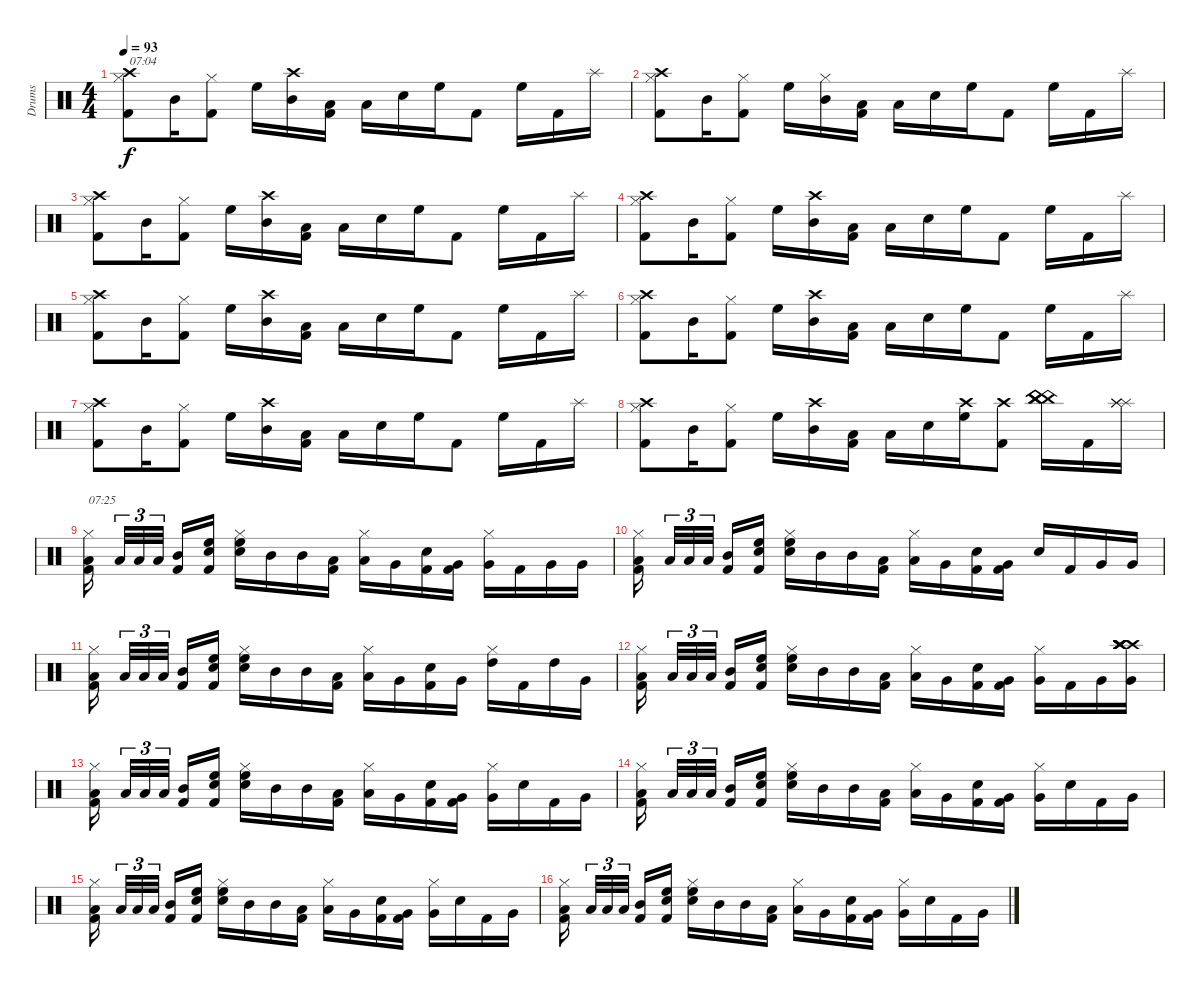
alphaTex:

\track ("Drums" "Drums") {instrument percussion}
\staff {score}
\articulation defaults
\ts (4 4)
\tempo 93
\clef neutral
\ks c
("Crash high (hit)" "Hi-Hat (closed)" "Kick (hit) 2").8{txt "07:04" dy f} "Mid Tom (hit)".16 ("Hi-Hat (closed)" "Kick (hit) 2").8 "High Floor Tom (hit)".16 ("Crash high (hit)" "Mid Tom (hit)").16 ("Low Tom (hit)" "Kick (hit) 2").16 "Low Tom (hit)".16 "Snare (hit) 2".16 "High Floor Tom (hit)".16 "Kick (hit) 2".8 "High Floor Tom (hit)".16 "Kick (hit) 2".16 "Splash (hit)".16 |
("Crash high (hit)" "Hi-Hat (closed)" "Kick (hit) 2").8 "Mid Tom (hit)".16 ("Hi-Hat (closed)" "Kick (hit) 2").8 "High Floor Tom (hit)".16 ("Hi-Hat (closed)" "Mid Tom (hit)").16 ("Low Tom (hit)" "Kick (hit) 2").16 "Low Tom (hit)".16 "Snare (hit) 2".16 "High Floor Tom (hit)".16 "Kick (hit) 2".8 "High Floor Tom (hit)".16 "Kick (hit) 2".16 "Splash (hit)".16 |
("Crash high (hit)" "Hi-Hat (closed)" "Kick (hit) 2").8 "Mid Tom (hit)".16 ("Hi-Hat (closed)" "Kick (hit) 2").8 "High Floor Tom (hit)".16 ("Crash high (hit)" "Mid Tom (hit)").16 ("Low Tom (hit)" "Kick (hit) 2").16 "Low Tom (hit)".16 "Snare (hit) 2".16 "High Floor Tom (hit)".16 "Kick (hit) 2".8 "High Floor Tom (hit)".16 "Kick (hit) 2".16 "Splash (hit)".16 |
("Crash high (hit)" "Hi-Hat (closed)" "Kick (hit) 2").8 "Mid Tom (hit)".16 ("Hi-Hat (closed)" "Kick (hit) 2").8 "High Floor Tom (hit)".16 ("Crash high (hit)" "Mid Tom (hit)").16 ("Low Tom (hit)" "Kick (hit) 2").16 "Low Tom (hit)".16 "Snare (hit) 2".16 "High Floor Tom (hit)".16 "Kick (hit) 2".8 "High Floor Tom (hit)".16 "Kick (hit) 2".16 "Splash (hit)".16 |
("Crash high (hit)" "Hi-Hat (closed)" "Kick (hit) 2").8 "Mid Tom (hit)".16 ("Hi-Hat (closed)" "Kick (hit) 2").8 "High Floor Tom (hit)".16 ("Crash high (hit)" "Mid Tom (hit)").16 ("Low Tom (hit)" "Kick (hit) 2").16 "Low Tom (hit)".16 "Snare (hit) 2".16 "High Floor Tom (hit)".16 "Kick (hit) 2".8 "High Floor Tom (hit)".16 "Kick (hit) 2".16 "Splash (hit)".16 |
("Crash high (hit)" "Hi-Hat (closed)" "Kick (hit) 2").8 "Mid Tom (hit)".16 ("Hi-Hat (closed)" "Kick (hit) 2").8 "High Floor Tom (hit)".16 ("Crash high (hit)" "Mid Tom (hit)").16 ("Low Tom (hit)" "Kick (hit) 2").16 "Low Tom (hit)".16 "Snare (hit) 2".16 "High Floor Tom (hit)".16 "Kick (hit) 2".8 "High Floor Tom (hit)".16 "Kick (hit) 2".16 "Splash (hit)".16 |
("Crash high (hit)" "Hi-Hat (closed)" "Kick (hit) 2").8 "Mid Tom (hit)".16 ("Hi-Hat (closed)" "Kick (hit) 2").8 "High Floor Tom (hit)".16 ("Crash high (hit)" "Mid Tom (hit)").16 ("Low Tom (hit)" "Kick (hit) 2").16 "Low Tom (hit)".16 "Snare (hit) 2".16 "High Floor Tom (hit)".16 "Kick (hit) 2".8 "High Floor Tom (hit)".16 "Kick (hit) 2".16 "Splash (hit)".16 |
("Crash high (hit)" "Hi-Hat (closed)" "Kick (hit) 2").8 "Mid Tom (hit)".16 ("Hi-Hat (closed)" "Kick (hit) 2").8 "High Floor Tom (hit)".16 ("Crash high (hit)" "Mid Tom (hit)").16 ("Low Tom (hit)" "Kick (hit) 2").16 "Low Tom (hit)".16 "Snare (hit) 2".16 ("Crash high (hit)" "High Floor Tom (hit)").16 ("Crash high (hit)" "Kick (hit) 2").8 ("China (hit)" "China (hit)" "China (hit)" "China (hit)").16 "Kick (hit) 2".16 ("Splash (hit)" "Splash (hit)" "Splash (hit)" "Splash (hit)").16 |
("Hi-Hat (closed)" "Low Floor Tom (hit)" "Kick (hit) 2").16{txt "07:25"} "Low Floor Tom (hit)".32{tu (3 2)} "Low Floor Tom (hit)".32{tu (3 2)} "Low Floor Tom (hit)".32{tu (3 2)} ("Mid Tom (hit)" "Kick (hit) 2").16 ("High Floor Tom (hit)" "Snare (hit) 2" "Kick (hit) 2").16 ("High Floor Tom (hit)" "Hi-Hat (closed)" "Snare (hit) 2").16 "Mid Tom (hit)".16 "Mid Tom (hit)".16 ("Low Tom (hit)" "Kick (hit) 2").16 ("Hi-Hat (closed)" "Low Floor Tom (hit)").16 "Very Low Tom (hit)".16 ("Snare (hit) 2" "Kick (hit) 2").16 ("Very Low Tom (hit)" "Kick (hit) 2").16 ("Hi-Hat (closed)" "Very Low Tom (hit)").16 "Kick (hit) 2".16 "Very Low Tom (hit)".16 "Very Low Tom (hit)".16 |
("Hi-Hat (closed)" "Low Floor Tom (hit)" "Kick (hit) 2").16 "Low Floor Tom (hit)".32{tu (3 2)} "Low Floor Tom (hit)".32{tu (3 2)} "Low Floor Tom (hit)".32{tu (3 2)} ("Mid Tom (hit)" "Kick (hit) 2").16 ("High Floor Tom (hit)" "Snare (hit) 2" "Kick (hit) 2").16 ("High Floor Tom (hit)" "Hi-Hat (closed)" "Snare (hit) 2").16 "Mid Tom (hit)".16 "Mid Tom (hit)".16 ("Low Tom (hit)" "Kick (hit) 2").16 ("Hi-Hat (closed)" "Low Floor Tom (hit)").16 "Very Low Tom (hit)".16 ("Snare (hit) 2" "Kick (hit) 2").16 ("Very Low Tom (hit)" "Kick (hit) 2").16 "Snare (hit) 2".16 "Kick (hit) 2".16 "Very Low Tom (hit)".16 "Very Low Tom (hit)".16 |
("Hi-Hat (closed)" "Low Floor Tom (hit)" "Kick (hit) 2").16 "Low Floor Tom (hit)".32{tu (3 2)} "Low Floor Tom (hit)".32{tu (3 2)} "Low Floor Tom (hit)".32{tu (3 2)} ("Mid Tom (hit)" "Kick (hit) 2").16 ("High Floor Tom (hit)" "Snare (hit) 2" "Kick (hit) 2").16 ("High Floor Tom (hit)" "Hi-Hat (closed)" "Snare (hit) 2").16 "Mid Tom (hit)".16 "Mid Tom (hit)".16 ("Low Tom (hit)" "Kick (hit) 2").16 ("Hi-Hat (closed)" "Low Floor Tom (hit)").16 "Very Low Tom (hit)".16 ("Snare (hit) 2" "Kick (hit) 2").16 "Very Low Tom (hit)".16 ("Hi-Hat (closed)" "High Tom (hit)").16 "Kick (hit) 2".16 "High Tom (hit)".16 "Very Low Tom (hit)".16 |
("Hi-Hat (closed)" "Low Floor Tom (hit)" "Kick (hit) 2").16 "Low Floor Tom (hit)".32{tu (3 2)} "Low Floor Tom (hit)".32{tu (3 2)} "Low Floor Tom (hit)".32{tu (3 2)} ("Mid Tom (hit)" "Kick (hit) 2").16 ("High Floor Tom (hit)" "Snare (hit) 2" "Kick (hit) 2").16 ("High Floor Tom (hit)" "Hi-Hat (closed)" "Snare (hit) 2").16 "Mid Tom (hit)".16 "Mid Tom (hit)".16 ("Low Tom (hit)" "Kick (hit) 2").16 ("Hi-Hat (closed)" "Low Floor Tom (hit)").16 "Very Low Tom (hit)".16 ("Snare (hit) 2" "Kick (hit) 2").16 ("Very Low Tom (hit)" "Kick (hit) 2").16 ("Hi-Hat (closed)" "Very Low Tom (hit)").16 "Kick (hit) 2".16 "Very Low Tom (hit)".16 ("Crash high (hit)" "Crash high (hit)" "Crash high (hit)" "Very Low Tom (hit)" "Crash high (hit)" "Crash high (hit)").16 |
("Hi-Hat (closed)" "Low Floor Tom (hit)" "Kick (hit) 2").16 "Low Floor Tom (hit)".32{tu (3 2)} "Low Floor Tom (hit)".32{tu (3 2)} "Low Floor Tom (hit)".32{tu (3 2)} ("Mid Tom (hit)" "Kick (hit) 2").16 ("High Floor Tom (hit)" "Snare (hit) 2" "Kick (hit) 2").16 ("High Floor Tom (hit)" "Hi-Hat (closed)" "Snare (hit) 2").16 "Mid Tom (hit)".16 "Mid Tom (hit)".16 ("Low Tom (hit)" "Kick (hit) 2").16 ("Hi-Hat (closed)" "Low Floor Tom (hit)").16 "Very Low Tom (hit)".16 ("Snare (hit) 2" "Kick (hit) 2").16 ("Very Low Tom (hit)" "Kick (hit) 2").16 ("Hi-Hat (closed)" "Very Low Tom (hit)").16 "Snare (hit) 2".16 "Kick (hit) 2".16 "Very Low Tom (hit)".16 |
("Hi-Hat (closed)" "Low Floor Tom (hit)" "Kick (hit) 2").16 "Low Floor Tom (hit)".32{tu (3 2)} "Low Floor Tom (hit)".32{tu (3 2)} "Low Floor Tom (hit)".32{tu (3 2)} ("Mid Tom (hit)" "Kick (hit) 2").16 ("High Floor Tom (hit)" "Snare (hit) 2" "Kick (hit) 2").16 ("High Floor Tom (hit)" "Hi-Hat (closed)" "Snare (hit) 2").16 "Mid Tom (hit)".16 "Mid Tom (hit)".16 ("Low Tom (hit)" "Kick (hit) 2").16 ("Hi-Hat (closed)" "Low Floor Tom (hit)").16 "Very Low Tom (hit)".16 ("Snare (hit) 2" "Kick (hit) 2").16 ("Very Low Tom (hit)" "Kick (hit) 2").16 ("Hi-Hat (closed)" "Very Low Tom (hit)").16 "Snare (hit) 2".16 "Kick (hit) 2".16 "Very Low Tom (hit)".16 |
("Hi-Hat (closed)" "Low Floor Tom (hit)" "Kick (hit) 2").16 "Low Floor Tom (hit)".32{tu (3 2)} "Low Floor Tom (hit)".32{tu (3 2)} "Low Floor Tom (hit)".32{tu (3 2)} ("Mid Tom (hit)" "Kick (hit) 2").16 ("High Floor Tom (hit)" "Snare (hit) 2" "Kick (hit) 2").16 ("High Floor Tom (hit)" "Hi-Hat (closed)" "Snare (hit) 2").16 "Mid Tom (hit)".16 "Mid Tom (hit)".16 ("Low Tom (hit)" "Kick (hit) 2").16 ("Hi-Hat (closed)" "Low Floor Tom (hit)").16 "Very Low Tom (hit)".16 ("Snare (hit) 2" "Kick (hit) 2").16 ("Very Low Tom (hit)" "Kick (hit) 2").16 ("Hi-Hat (closed)" "Very Low Tom (hit)").16 "Snare (hit) 2".16 "Kick (hit) 2".16 "Very Low Tom (hit)".16 |
("Hi-Hat (closed)" "Low Floor Tom (hit)" "Kick (hit) 2").16 "Low Floor Tom (hit)".32{tu (3 2)} "Low Floor Tom (hit)".32{tu (3 2)} "Low Floor Tom (hit)".32{tu (3 2)} ("Mid Tom (hit)" "Kick (hit) 2").16 ("High Floor Tom (hit)" "Snare (hit) 2" "Kick (hit) 2").16 ("High Floor Tom (hit)" "Hi-Hat (closed)" "Snare (hit) 2").16 "Mid Tom (hit)".16 "Mid Tom (hit)".16 ("Low Tom (hit)" "Kick (hit) 2").16 ("Hi-Hat (closed)" "Low Floor Tom (hit)").16 "Very Low Tom (hit)".16 ("Snare (hit) 2" "Kick (hit) 2").16 ("Very Low Tom (hit)" "Kick (hit) 2").16 ("Hi-Hat (closed)" "Very Low Tom (hit)").16 "Snare (hit) 2".16 "Kick (hit) 2".16 "Very Low Tom (hit)".16
